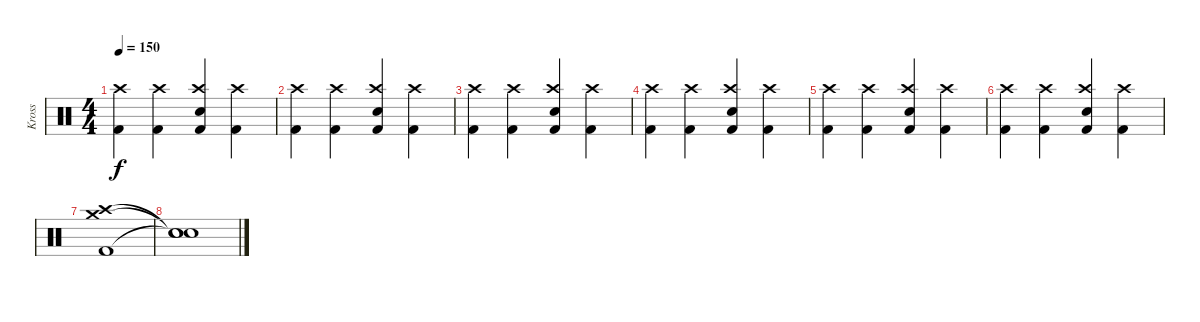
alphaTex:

\track ("Kross" "Kross") {instrument percussion}
\staff {score}
\articulation defaults
\ts (4 4)
\tempo 150
\clef neutral
\ks c
("Kick (hit) 2" "Crash high (hit)").4{dy f} ("Kick (hit) 2" "Crash high (hit)").4 ("Crash high (hit)" "Kick (hit) 2" "Electric Snare (hit)").4 ("Kick (hit) 2" "Crash high (hit)").4 |
("Kick (hit) 2" "Crash high (hit)").4 ("Kick (hit) 2" "Crash high (hit)").4 ("Crash high (hit)" "Kick (hit) 2" "Electric Snare (hit)").4 ("Kick (hit) 2" "Crash high (hit)").4 |
("Kick (hit) 2" "Crash high (hit)").4 ("Kick (hit) 2" "Crash high (hit)").4 ("Crash high (hit)" "Kick (hit) 2" "Electric Snare (hit)").4 ("Kick (hit) 2" "Crash high (hit)").4 |
("Kick (hit) 2" "Crash high (hit)").4 ("Kick (hit) 2" "Crash high (hit)").4 ("Crash high (hit)" "Kick (hit) 2" "Electric Snare (hit)").4 ("Kick (hit) 2" "Crash high (hit)").4 |
("Kick (hit) 2" "Crash high (hit)").4 ("Kick (hit) 2" "Crash high (hit)").4 ("Crash high (hit)" "Kick (hit) 2" "Electric Snare (hit)").4 ("Kick (hit) 2" "Crash high (hit)").4 |
("Kick (hit) 2" "Crash high (hit)").4 ("Kick (hit) 2" "Crash high (hit)").4 ("Crash high (hit)" "Kick (hit) 2" "Electric Snare (hit)").4 ("Kick (hit) 2" "Crash high (hit)").4 |
("Kick (hit) 2" "Crash medium (hit)" "Crash high (hit)").1 |
("Snare (hit)"{t} "Snare (hit)"{t} "Snare (hit)"{t}).1
